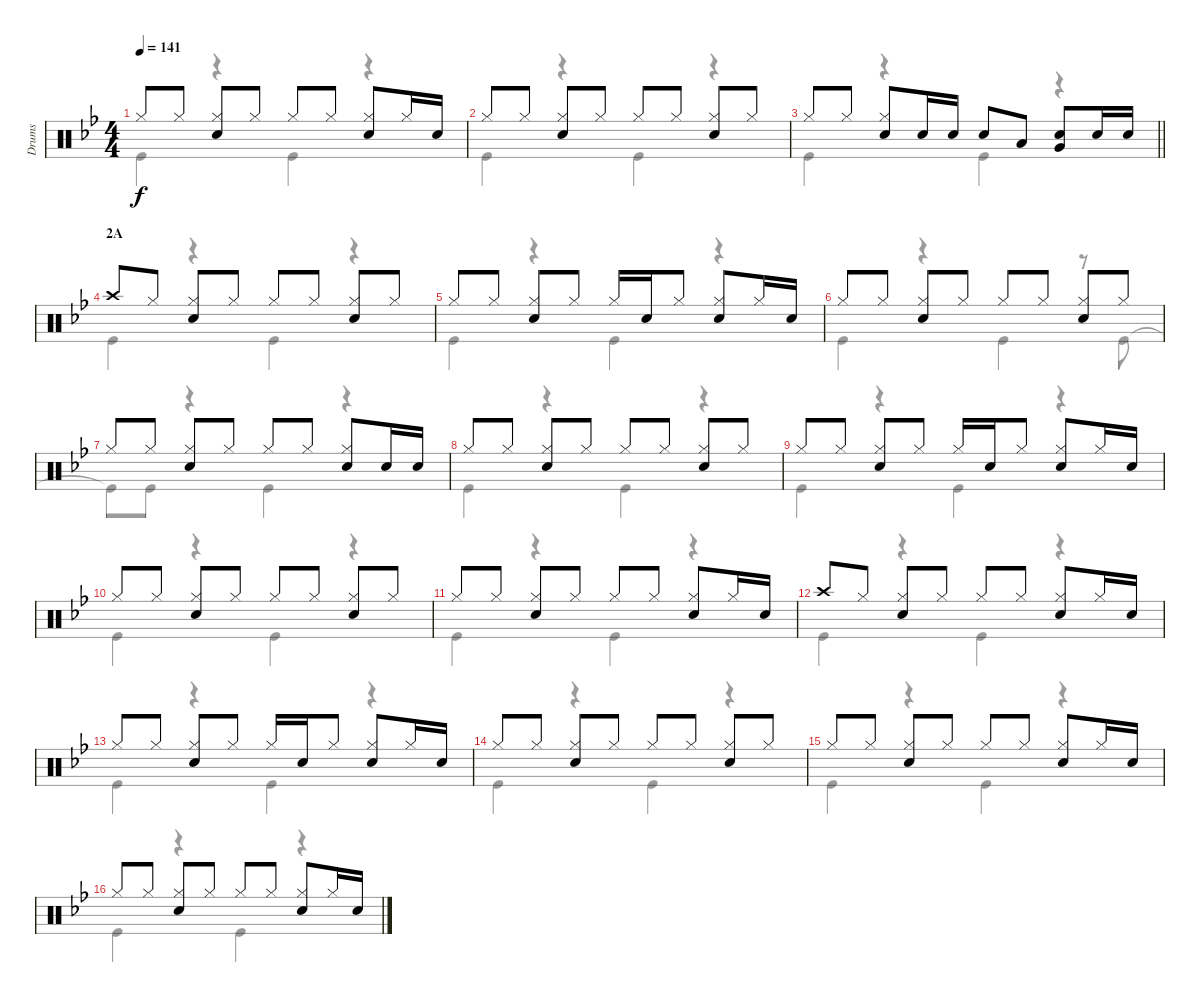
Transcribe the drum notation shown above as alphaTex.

\track ("Drums" "Drums") {instrument percussion}
\staff {score}
\articulation defaults
\voice
\ts (4 4)
\tempo 141
\clef neutral
\ks bb "Hi-Hat (closed)".8{dy f} "Hi-Hat (closed)".8
("Hi-Hat (closed)" "Snare (hit) 2").8 "Hi-Hat (closed)".8 "Hi-Hat (closed)".8 "Hi-Hat (closed)".8 ("Hi-Hat (closed)" "Snare (hit) 2").8 "Hi-Hat (closed)".16 "Snare (hit) 2".16 |
"Hi-Hat (closed)".8 "Hi-Hat (closed)".8 ("Hi-Hat (closed)" "Snare (hit) 2").8 "Hi-Hat (closed)".8 "Hi-Hat (closed)".8 "Hi-Hat (closed)".8 ("Hi-Hat (closed)" "Snare (hit) 2").8 "Hi-Hat (closed)".8 |
\barLineRight lightlight "Hi-Hat (closed)".8 "Hi-Hat (closed)".8
("Hi-Hat (closed)" "Snare (hit) 2").8 "Snare (hit) 2".16 "Snare (hit) 2".16 "Snare (hit) 2".8 "Low Tom (hit)".8 ("Very Low Tom (hit)" "Snare (hit) 2").8 "Snare (hit) 2".16 "Snare (hit) 2".16 |
\section ("" "2A")
"Crash high (hit)".8 "Hi-Hat (closed)".8 ("Hi-Hat (closed)" "Snare (hit) 2").8 "Hi-Hat (closed)".8 "Hi-Hat (closed)".8 "Hi-Hat (closed)".8 ("Hi-Hat (closed)" "Snare (hit) 2").8 "Hi-Hat (closed)".8 |
"Hi-Hat (closed)".8 "Hi-Hat (closed)".8 ("Hi-Hat (closed)" "Snare (hit) 2").8 "Hi-Hat (closed)".8 "Hi-Hat (closed)".16 "Snare (hit) 2".16 "Hi-Hat (closed)".8 ("Hi-Hat (closed)" "Snare (hit) 2").8 "Hi-Hat (closed)".16 "Snare (hit) 2".16 |
"Hi-Hat (closed)".8 "Hi-Hat (closed)".8 ("Hi-Hat (closed)" "Snare (hit) 2").8 "Hi-Hat (closed)".8 "Hi-Hat (closed)".8 "Hi-Hat (closed)".8 ("Hi-Hat (closed)" "Snare (hit) 2").8 "Hi-Hat (closed)".8 |
"Hi-Hat (closed)".8 "Hi-Hat (closed)".8 ("Hi-Hat (closed)" "Snare (hit) 2").8 "Hi-Hat (closed)".8 "Hi-Hat (closed)".8 "Hi-Hat (closed)".8 ("Hi-Hat (closed)" "Snare (hit) 2").8 "Snare (hit) 2".16 "Snare (hit) 2".16 |
"Hi-Hat (closed)".8 "Hi-Hat (closed)".8 ("Hi-Hat (closed)" "Snare (hit) 2").8 "Hi-Hat (closed)".8 "Hi-Hat (closed)".8 "Hi-Hat (closed)".8 ("Hi-Hat (closed)" "Snare (hit) 2").8 "Hi-Hat (closed)".8 |
"Hi-Hat (closed)".8 "Hi-Hat (closed)".8 ("Hi-Hat (closed)" "Snare (hit) 2").8 "Hi-Hat (closed)".8 "Hi-Hat (closed)".16 "Snare (hit) 2".16 "Hi-Hat (closed)".8 ("Hi-Hat (closed)" "Snare (hit) 2").8 "Hi-Hat (closed)".16 "Snare (hit) 2".16 |
"Hi-Hat (closed)".8 "Hi-Hat (closed)".8 ("Hi-Hat (closed)" "Snare (hit) 2").8 "Hi-Hat (closed)".8 "Hi-Hat (closed)".8 "Hi-Hat (closed)".8 ("Hi-Hat (closed)" "Snare (hit) 2").8 "Hi-Hat (closed)".8 |
"Hi-Hat (closed)".8 "Hi-Hat (closed)".8 ("Hi-Hat (closed)" "Snare (hit) 2").8 "Hi-Hat (closed)".8 "Hi-Hat (closed)".8 "Hi-Hat (closed)".8 ("Hi-Hat (closed)" "Snare (hit) 2").8 "Hi-Hat (closed)".16 "Snare (hit) 2".16 |
"Crash high (hit)".8 "Hi-Hat (closed)".8 ("Hi-Hat (closed)" "Snare (hit) 2").8 "Hi-Hat (closed)".8 "Hi-Hat (closed)".8 "Hi-Hat (closed)".8 ("Hi-Hat (closed)" "Snare (hit) 2").8 "Hi-Hat (closed)".16 "Snare (hit) 2".16 |
"Hi-Hat (closed)".8 "Hi-Hat (closed)".8 ("Hi-Hat (closed)" "Snare (hit) 2").8 "Hi-Hat (closed)".8 "Hi-Hat (closed)".16 "Snare (hit) 2".16 "Hi-Hat (closed)".8 ("Hi-Hat (closed)" "Snare (hit) 2").8 "Hi-Hat (closed)".16 "Snare (hit) 2".16 |
"Hi-Hat (closed)".8 "Hi-Hat (closed)".8 ("Hi-Hat (closed)" "Snare (hit) 2").8 "Hi-Hat (closed)".8 "Hi-Hat (closed)".8 "Hi-Hat (closed)".8 ("Hi-Hat (closed)" "Snare (hit) 2").8 "Hi-Hat (closed)".8 |
"Hi-Hat (closed)".8 "Hi-Hat (closed)".8 ("Hi-Hat (closed)" "Snare (hit) 2").8 "Hi-Hat (closed)".8 "Hi-Hat (closed)".8 "Hi-Hat (closed)".8 ("Hi-Hat (closed)" "Snare (hit) 2").8 "Hi-Hat (closed)".16 "Snare (hit) 2".16 |
"Hi-Hat (closed)".8 "Hi-Hat (closed)".8 ("Hi-Hat (closed)" "Snare (hit) 2").8 "Hi-Hat (closed)".8 "Hi-Hat (closed)".8 "Hi-Hat (closed)".8 ("Hi-Hat (closed)" "Snare (hit) 2").8 "Hi-Hat (closed)".16 "Snare (hit) 2".16
\voice
\clef neutral
\ottava regular
\simile none
\ks bb "Kick (hit)".4{dy f}
r.4 "Kick (hit)".4 r.4 |
"Kick (hit)".4 r.4 "Kick (hit)".4 r.4 |
\barLineRight lightlight "Kick (hit)".4
r.4 "Kick (hit)".4 r.4 |
"Kick (hit)".4 r.4 "Kick (hit)".4 r.4 |
"Kick (hit)".4 r.4 "Kick (hit)".4 r.4 |
"Kick (hit)".4 r.4 "Kick (hit)".4 r.8 "Kick (hit)".8 |
"Kick (hit)"{t}.8 "Kick (hit)".8 r.4 "Kick (hit)".4 r.4 |
"Kick (hit)".4 r.4 "Kick (hit)".4 r.4 |
"Kick (hit)".4 r.4 "Kick (hit)".4 r.4 |
"Kick (hit)".4 r.4 "Kick (hit)".4 r.4 |
"Kick (hit)".4 r.4 "Kick (hit)".4 r.4 |
"Kick (hit)".4 r.4 "Kick (hit)".4 r.4 |
"Kick (hit)".4 r.4 "Kick (hit)".4 r.4 |
"Kick (hit)".4 r.4 "Kick (hit)".4 r.4 |
"Kick (hit)".4 r.4 "Kick (hit)".4 r.4 |
"Kick (hit)".4 r.4 "Kick (hit)".4 r.4
